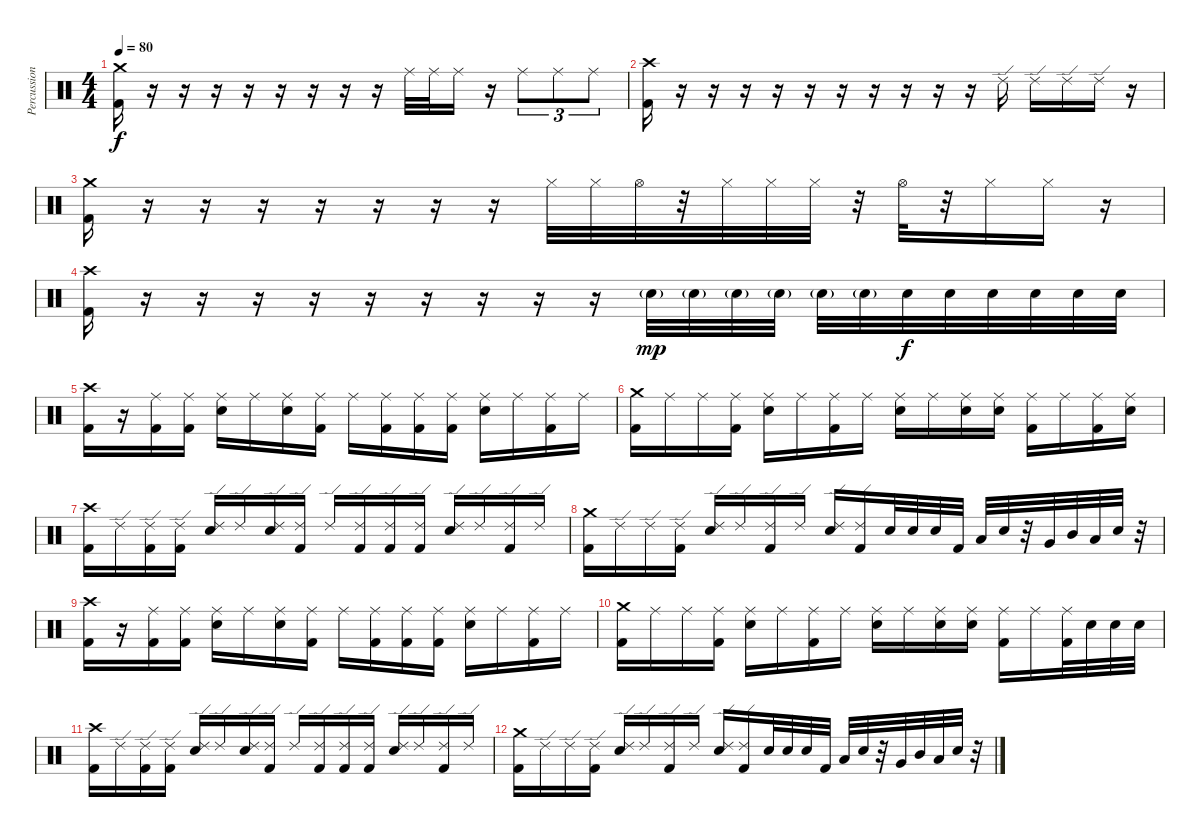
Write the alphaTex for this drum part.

\track ("Percussion" "Percussion") {instrument percussion bank 237}
\staff {score}
\articulation defaults
\ts (4 4)
\tempo 80
\clef neutral
\ks c
("Crash medium (hit)" "Kick (hit) 2").16{dy f} r.16 r.16 r.16 r.16 r.16 r.16 r.16 r.16 "Ride (middle)".32 "Ride (middle)".32 "Ride (middle)".16 r.16 "Ride (middle)".8{tu (3 2)} "Ride (middle)".8{tu (3 2)} "Ride (middle)".8{tu (3 2)} |
("Crash high (hit)" "Kick (hit) 2").16 r.16 r.16 r.16 r.16 r.16 r.16 r.16 r.16 r.16 r.16 "Ride (edge) 2".16 "Ride (edge) 2".16 "Ride (edge) 2".16 "Ride (edge) 2".16 r.16 |
("Crash medium (hit)" "Kick (hit) 2").16 r.16 r.16 r.16 r.16 r.16 r.16 r.16 "Hi-Hat (closed)".32 "Hi-Hat (closed)".32 "Hi-Hat (open)".32 r.32 "Hi-Hat (closed)".32 "Hi-Hat (closed)".32 "Hi-Hat (closed)".32 r.32 "Hi-Hat (open)".32 r.32 "Hi-Hat (closed)".16 "Hi-Hat (closed)".16 r.16 |
("Crash high (hit)" "Kick (hit) 2").16 r.16 r.16 r.16 r.16 r.16 r.16 r.16 r.16 r.16 "Electric Snare (hit)"{g}.32{dy mp} "Electric Snare (hit)"{g}.32 "Electric Snare (hit)"{g}.32 "Electric Snare (hit)"{g}.32 "Electric Snare (hit)"{g}.32 "Electric Snare (hit)"{g}.32 "Electric Snare (hit)".32{dy f} "Electric Snare (hit)".32 "Electric Snare (hit)".32 "Electric Snare (hit)".32 "Electric Snare (hit)".32 "Electric Snare (hit)".32 |
("Crash high (hit)" "Kick (hit) 2").16 r.16 ("Ride (middle)" "Kick (hit) 2").16 ("Ride (middle)" "Kick (hit) 2").16 ("Ride (middle)" "Electric Snare (hit)").16 "Ride (middle)".16 ("Ride (middle)" "Electric Snare (hit)").16 ("Ride (middle)" "Kick (hit) 2").16 "Ride (middle)".16 ("Ride (middle)" "Kick (hit) 2").16 ("Ride (middle)" "Kick (hit) 2").16 ("Ride (middle)" "Kick (hit) 2").16 ("Ride (middle)" "Electric Snare (hit)").16 "Ride (middle)".16 ("Ride (middle)" "Kick (hit) 2").16 "Ride (middle)".16 |
("Crash medium (hit)" "Kick (hit) 2").16 "Ride (middle)".16 "Ride (middle)".16 ("Ride (middle)" "Kick (hit) 2").16 ("Ride (middle)" "Electric Snare (hit)").16 "Ride (middle)".16 ("Ride (middle)" "Kick (hit) 2").16 "Ride (middle)".16 ("Ride (middle)" "Electric Snare (hit)").16 "Ride (middle)".16 ("Ride (middle)" "Electric Snare (hit)").16 ("Ride (middle)" "Electric Snare (hit)").16 ("Ride (middle)" "Kick (hit) 2").16 "Ride (middle)".16 ("Ride (middle)" "Kick (hit) 2").16 ("Ride (middle)" "Electric Snare (hit)").16 |
("Crash high (hit)" "Kick (hit) 2").16 "Ride (edge) 2".16 ("Ride (edge) 2" "Kick (hit) 2").16 ("Ride (edge) 2" "Kick (hit) 2").16 ("Ride (edge) 2" "Electric Snare (hit)").16 "Ride (edge) 2".16 ("Ride (edge) 2" "Electric Snare (hit)").16 ("Ride (edge) 2" "Kick (hit) 2").16 "Ride (edge) 2".16 ("Ride (edge) 2" "Kick (hit) 2").16 ("Ride (edge) 2" "Kick (hit) 2").16 ("Ride (edge) 2" "Kick (hit) 2").16 ("Ride (edge) 2" "Electric Snare (hit)").16 "Ride (edge) 2".16 ("Ride (edge) 2" "Kick (hit) 2").16 "Ride (edge) 2".16 |
("Crash medium (hit)" "Kick (hit) 2").16 "Ride (edge) 2".16 "Ride (edge) 2".16 ("Ride (edge) 2" "Kick (hit) 2").16 ("Ride (edge) 2" "Electric Snare (hit)").16 "Ride (edge) 2".16 ("Ride (edge) 2" "Kick (hit) 2").16 "Ride (edge) 2".16 ("Ride (edge) 2" "Electric Snare (hit)").16 ("Ride (edge) 2" "Kick (hit) 2").16 "Electric Snare (hit)".32 "Electric Snare (hit)".32 "Electric Snare (hit)".32 "Kick (hit) 2".32 "Low Tom (hit)".32 "Electric Snare (hit)".32 r.32 "Very Low Tom (hit)".32 "Mid Tom (hit)".32 "Low Tom (hit)".32 "Electric Snare (hit)".32 r.32 |
("Crash high (hit)" "Kick (hit) 2").16 r.16 ("Ride (middle)" "Kick (hit) 2").16 ("Ride (middle)" "Kick (hit) 2").16 ("Ride (middle)" "Electric Snare (hit)").16 "Ride (middle)".16 ("Ride (middle)" "Electric Snare (hit)").16 ("Ride (middle)" "Kick (hit) 2").16 "Ride (middle)".16 ("Ride (middle)" "Kick (hit) 2").16 ("Ride (middle)" "Kick (hit) 2").16 ("Ride (middle)" "Kick (hit) 2").16 ("Ride (middle)" "Electric Snare (hit)").16 "Ride (middle)".16 ("Ride (middle)" "Kick (hit) 2").16 "Ride (middle)".16 |
("Crash medium (hit)" "Kick (hit) 2").16 "Ride (middle)".16 "Ride (middle)".16 ("Ride (middle)" "Kick (hit) 2").16 ("Ride (middle)" "Electric Snare (hit)").16 "Ride (middle)".16 ("Ride (middle)" "Kick (hit) 2").16 "Ride (middle)".16 ("Ride (middle)" "Electric Snare (hit)").16 "Ride (middle)".16 ("Ride (middle)" "Electric Snare (hit)").16 ("Ride (middle)" "Electric Snare (hit)").16 ("Ride (middle)" "Kick (hit) 2").16 "Ride (middle)".16 ("Ride (middle)" "Kick (hit) 2").32 "Electric Snare (hit)".32 "Electric Snare (hit)".32 "Electric Snare (hit)".32 |
("Crash high (hit)" "Kick (hit) 2").16 "Ride (edge) 2".16 ("Ride (edge) 2" "Kick (hit) 2").16 ("Ride (edge) 2" "Kick (hit) 2").16 ("Ride (edge) 2" "Electric Snare (hit)").16 "Ride (edge) 2".16 ("Ride (edge) 2" "Electric Snare (hit)").16 ("Ride (edge) 2" "Kick (hit) 2").16 "Ride (edge) 2".16 ("Ride (edge) 2" "Kick (hit) 2").16 ("Ride (edge) 2" "Kick (hit) 2").16 ("Ride (edge) 2" "Kick (hit) 2").16 ("Ride (edge) 2" "Electric Snare (hit)").16 "Ride (edge) 2".16 ("Ride (edge) 2" "Kick (hit) 2").16 "Ride (edge) 2".16 |
("Crash medium (hit)" "Kick (hit) 2").16 "Ride (edge) 2".16 "Ride (edge) 2".16 ("Ride (edge) 2" "Kick (hit) 2").16 ("Ride (edge) 2" "Electric Snare (hit)").16 "Ride (edge) 2".16 ("Ride (edge) 2" "Kick (hit) 2").16 "Ride (edge) 2".16 ("Ride (edge) 2" "Electric Snare (hit)").16 ("Ride (edge) 2" "Kick (hit) 2").16 "Electric Snare (hit)".32 "Electric Snare (hit)".32 "Electric Snare (hit)".32 "Kick (hit) 2".32 "Low Tom (hit)".32 "Electric Snare (hit)".32 r.32 "Very Low Tom (hit)".32 "Mid Tom (hit)".32 "Low Tom (hit)".32 "Electric Snare (hit)".32 r.32
